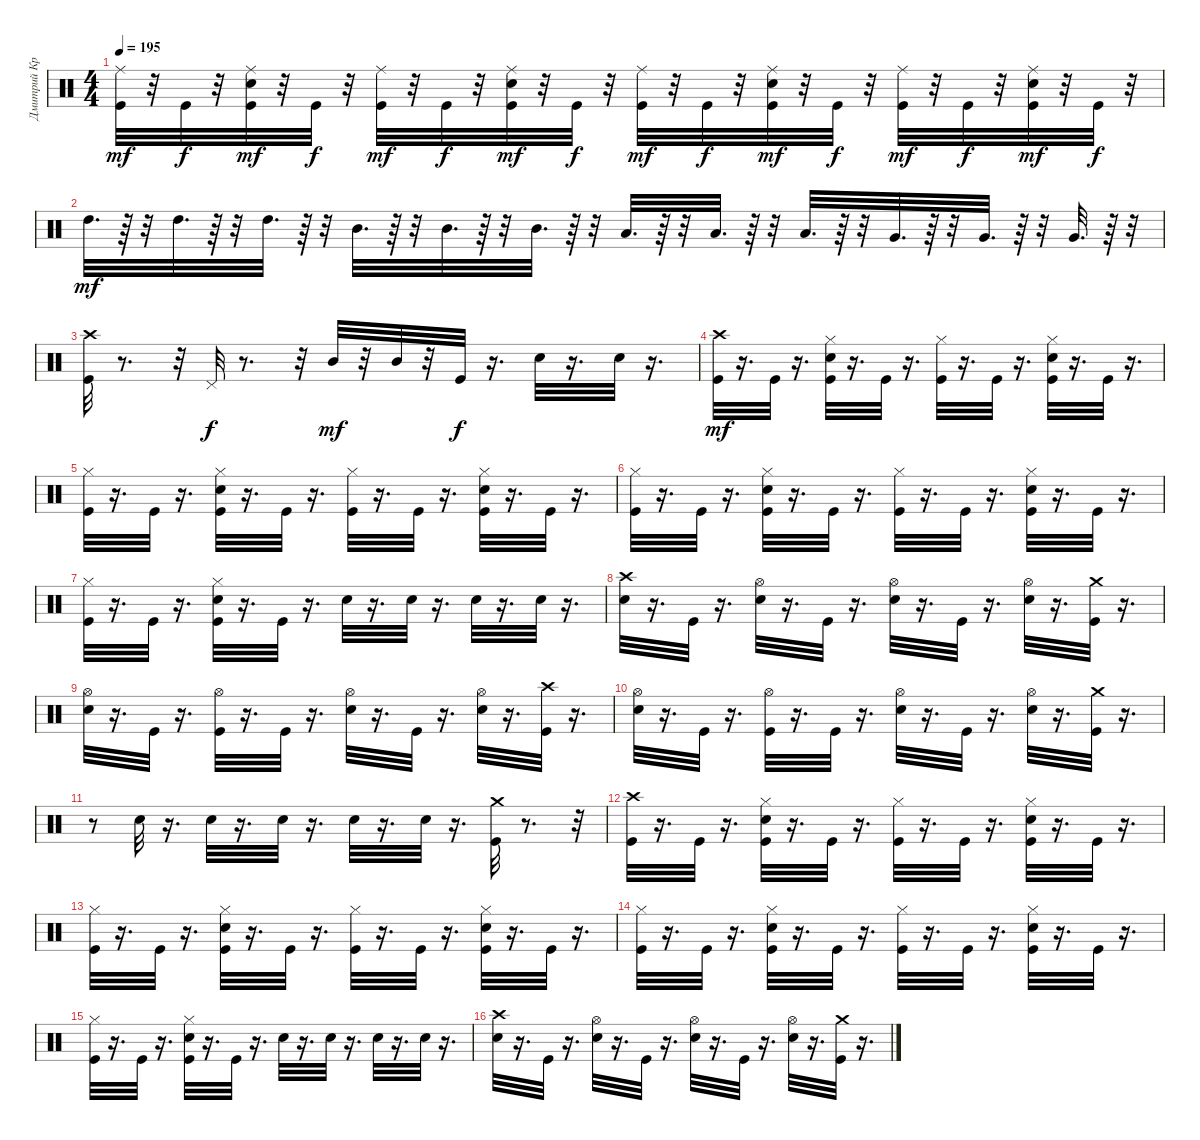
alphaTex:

\track ("Дмитрий Кривенков" "Дмитрий Кр") {instrument percussion}
\staff {score}
\articulation defaults
\ts (4 4)
\tempo 195
\clef neutral
\ks c
("Ride (middle)" "Kick (hit)").32{dy mf} r.32 "Kick (hit)".32{dy f} r.32 ("Electric Snare (hit)" "Ride (middle)" "Kick (hit)").32{dy mf} r.32 "Kick (hit)".32{dy f} r.32 ("Ride (middle)" "Kick (hit)").32{dy mf} r.32 "Kick (hit)".32{dy f} r.32 ("Ride (middle)" "Kick (hit)" "Electric Snare (hit)").32{dy mf} r.32 "Kick (hit)".32{dy f} r.32 ("Ride (middle)" "Kick (hit)").32{dy mf} r.32 "Kick (hit)".32{dy f} r.32 ("Ride (middle)" "Kick (hit)" "Electric Snare (hit)").32{dy mf} r.32 "Kick (hit)".32{dy f} r.32 ("Ride (middle)" "Kick (hit)").32{dy mf} r.32 "Kick (hit)".32{dy f} r.32 ("Electric Snare (hit)" "Ride (middle)" "Kick (hit)").32{dy mf} r.32 "Kick (hit)".32{dy f} r.32 |
"High Tom (hit)".32{d dy mf} r.64 r.32 "High Tom (hit)".32{d} r.64 r.32 "High Tom (hit)".32{d} r.64 r.32 "Mid Tom (hit)".32{d} r.64 r.32 "Mid Tom (hit)".32{d} r.64 r.32 "Mid Tom (hit)".32{d} r.64 r.32 "Low Tom (hit)".32{d} r.64 r.32 "Low Tom (hit)".32{d} r.64 r.32 "Low Tom (hit)".32{d} r.64 r.32 "Very Low Tom (hit)".32{d} r.64 r.32 "Very Low Tom (hit)".32{d} r.64 r.32 "Very Low Tom (hit)".32{d} r.64 r.32 |
("Crash high (hit)" "Kick (hit)").32 r.8{d} r.32 "Pedal Hi-Hat (hit)".32{dy f} r.8{d} r.32 "Mid Tom (hit)".32{dy mf} r.32 "Mid Tom (hit)".32 r.32 "Kick (hit)".32{dy f} r.16{d} "Electric Snare (hit)".32 r.16{d} "Electric Snare (hit)".32 r.16{d} |
("Crash high (hit)" "Kick (hit)").32{dy mf} r.16{d} "Kick (hit)".32 r.16{d} ("Electric Snare (hit)" "Kick (hit)" "Hi-Hat (closed)").32 r.16{d} "Kick (hit)".32 r.16{d} ("Kick (hit)" "Hi-Hat (closed)").32 r.16{d} "Kick (hit)".32 r.16{d} ("Electric Snare (hit)" "Kick (hit)" "Hi-Hat (closed)").32 r.16{d} "Kick (hit)".32 r.16{d} |
("Hi-Hat (closed)" "Kick (hit)").32 r.16{d} "Kick (hit)".32 r.16{d} ("Electric Snare (hit)" "Kick (hit)" "Hi-Hat (closed)").32 r.16{d} "Kick (hit)".32 r.16{d} ("Kick (hit)" "Hi-Hat (closed)").32 r.16{d} "Kick (hit)".32 r.16{d} ("Electric Snare (hit)" "Kick (hit)" "Hi-Hat (closed)").32 r.16{d} "Kick (hit)".32 r.16{d} |
("Hi-Hat (closed)" "Kick (hit)").32 r.16{d} "Kick (hit)".32 r.16{d} ("Electric Snare (hit)" "Kick (hit)" "Hi-Hat (closed)").32 r.16{d} "Kick (hit)".32 r.16{d} ("Kick (hit)" "Hi-Hat (closed)").32 r.16{d} "Kick (hit)".32 r.16{d} ("Electric Snare (hit)" "Kick (hit)" "Hi-Hat (closed)").32 r.16{d} "Kick (hit)".32 r.16{d} |
("Hi-Hat (closed)" "Kick (hit)").32 r.16{d} "Kick (hit)".32 r.16{d} ("Electric Snare (hit)" "Kick (hit)" "Hi-Hat (closed)").32 r.16{d} "Kick (hit)".32 r.16{d} "Electric Snare (hit)".32 r.16{d} "Electric Snare (hit)".32 r.16{d} "Electric Snare (hit)".32 r.16{d} "Electric Snare (hit)".32 r.16{d} |
("Crash high (hit)" "Electric Snare (hit)").32 r.16{d} "Kick (hit)".32 r.16{d} ("Electric Snare (hit)" "Hi-Hat (open)").32 r.16{d} "Kick (hit)".32 r.16{d} ("Electric Snare (hit)" "Hi-Hat (open)").32 r.16{d} "Kick (hit)".32 r.16{d} ("Hi-Hat (open)" "Electric Snare (hit)").32 r.16{d} ("Kick (hit)" "Crash medium (hit)").32 r.16{d} |
("Hi-Hat (open)" "Electric Snare (hit)").32 r.16{d} "Kick (hit)".32 r.16{d} ("Hi-Hat (open)" "Kick (hit)").32 r.16{d} "Kick (hit)".32 r.16{d} ("Hi-Hat (open)" "Electric Snare (hit)").32 r.16{d} "Kick (hit)".32 r.16{d} ("Electric Snare (hit)" "Hi-Hat (open)").32 r.16{d} ("Crash high (hit)" "Kick (hit)").32 r.16{d} |
("Electric Snare (hit)" "Hi-Hat (open)").32 r.16{d} "Kick (hit)".32 r.16{d} ("Kick (hit)" "Hi-Hat (open)").32 r.16{d} "Kick (hit)".32 r.16{d} ("Electric Snare (hit)" "Hi-Hat (open)").32 r.16{d} "Kick (hit)".32 r.16{d} ("Electric Snare (hit)" "Hi-Hat (open)").32 r.16{d} ("Kick (hit)" "Crash medium (hit)").32 r.16{d} |
r.8 "Electric Snare (hit)".32 r.16{d} "Electric Snare (hit)".32 r.16{d} "Electric Snare (hit)".32 r.16{d} "Electric Snare (hit)".32 r.16{d} "Electric Snare (hit)".32 r.16{d} ("Kick (hit)" "Crash medium (hit)").32 r.8{d} r.32 |
("Crash high (hit)" "Kick (hit)").32 r.16{d} "Kick (hit)".32 r.16{d} ("Electric Snare (hit)" "Kick (hit)" "Hi-Hat (closed)").32 r.16{d} "Kick (hit)".32 r.16{d} ("Kick (hit)" "Hi-Hat (closed)").32 r.16{d} "Kick (hit)".32 r.16{d} ("Electric Snare (hit)" "Kick (hit)" "Hi-Hat (closed)").32 r.16{d} "Kick (hit)".32 r.16{d} |
("Hi-Hat (closed)" "Kick (hit)").32 r.16{d} "Kick (hit)".32 r.16{d} ("Electric Snare (hit)" "Kick (hit)" "Hi-Hat (closed)").32 r.16{d} "Kick (hit)".32 r.16{d} ("Kick (hit)" "Hi-Hat (closed)").32 r.16{d} "Kick (hit)".32 r.16{d} ("Electric Snare (hit)" "Kick (hit)" "Hi-Hat (closed)").32 r.16{d} "Kick (hit)".32 r.16{d} |
("Hi-Hat (closed)" "Kick (hit)").32 r.16{d} "Kick (hit)".32 r.16{d} ("Electric Snare (hit)" "Kick (hit)" "Hi-Hat (closed)").32 r.16{d} "Kick (hit)".32 r.16{d} ("Kick (hit)" "Hi-Hat (closed)").32 r.16{d} "Kick (hit)".32 r.16{d} ("Electric Snare (hit)" "Kick (hit)" "Hi-Hat (closed)").32 r.16{d} "Kick (hit)".32 r.16{d} |
("Hi-Hat (closed)" "Kick (hit)").32 r.16{d} "Kick (hit)".32 r.16{d} ("Electric Snare (hit)" "Kick (hit)" "Hi-Hat (closed)").32 r.16{d} "Kick (hit)".32 r.16{d} "Electric Snare (hit)".32 r.16{d} "Electric Snare (hit)".32 r.16{d} "Electric Snare (hit)".32 r.16{d} "Electric Snare (hit)".32 r.16{d} |
("Crash high (hit)" "Electric Snare (hit)").32 r.16{d} "Kick (hit)".32 r.16{d} ("Electric Snare (hit)" "Hi-Hat (open)").32 r.16{d} "Kick (hit)".32 r.16{d} ("Electric Snare (hit)" "Hi-Hat (open)").32 r.16{d} "Kick (hit)".32 r.16{d} ("Hi-Hat (open)" "Electric Snare (hit)").32 r.16{d} ("Kick (hit)" "Crash medium (hit)").32 r.16{d}
